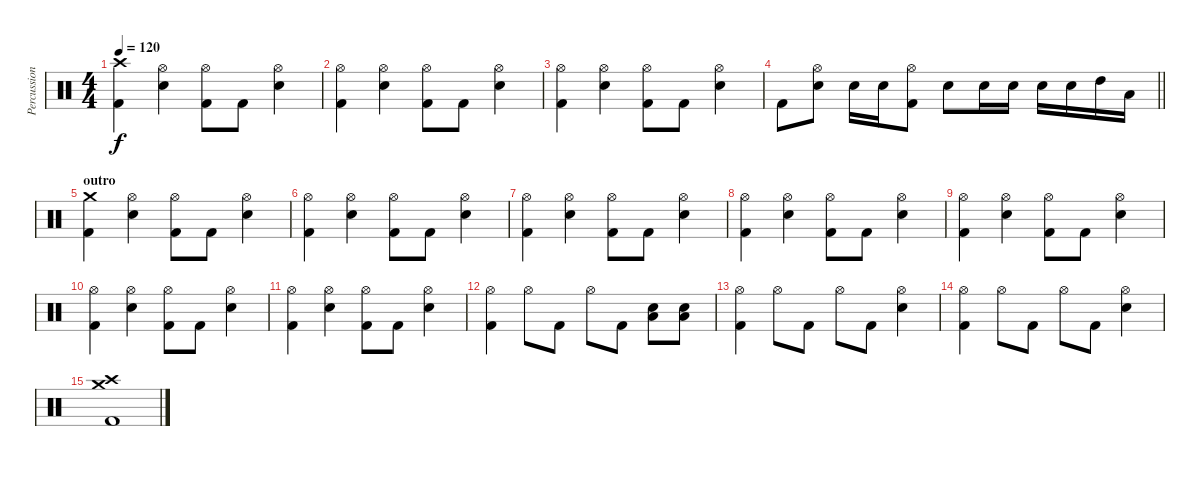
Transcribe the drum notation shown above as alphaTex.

\track ("Percussion" "Percussion") {instrument percussion}
\staff {score}
\articulation defaults
\ts (4 4)
\tempo 120
\clef neutral
\ks c
("Kick (hit) 2" "Crash high (hit)").4{dy f} ("Snare (hit) 2" "Hi-Hat (open)").4 ("Kick (hit) 2" "Hi-Hat (open)").8 "Kick (hit) 2".8 ("Snare (hit) 2" "Hi-Hat (open)").4 |
("Kick (hit) 2" "Hi-Hat (open)").4 ("Snare (hit) 2" "Hi-Hat (open)").4 ("Kick (hit) 2" "Hi-Hat (open)").8 "Kick (hit) 2".8 ("Snare (hit) 2" "Hi-Hat (open)").4 |
("Kick (hit) 2" "Hi-Hat (open)").4 ("Snare (hit) 2" "Hi-Hat (open)").4 ("Kick (hit) 2" "Hi-Hat (open)").8 "Kick (hit) 2".8 ("Snare (hit) 2" "Hi-Hat (open)").4 |
\barLineRight lightlight "Kick (hit) 2".8
("Snare (hit) 2" "Hi-Hat (open)").8 "Snare (hit) 2".16 "Snare (hit) 2".16 ("Kick (hit) 2" "Hi-Hat (open)").8 "Snare (hit) 2".8 "Snare (hit) 2".16 "Snare (hit) 2".16 "Snare (hit) 2".16 "Snare (hit) 2".16 "High Tom (hit)".16 "Low Tom (hit)".16 |
\section ("" "outro")
("Kick (hit) 2" "Crash medium (hit)").4 ("Snare (hit) 2" "Hi-Hat (open)").4 ("Kick (hit) 2" "Hi-Hat (open)").8 "Kick (hit) 2".8 ("Snare (hit) 2" "Hi-Hat (open)").4 |
("Kick (hit) 2" "Hi-Hat (open)").4 ("Snare (hit) 2" "Hi-Hat (open)").4 ("Kick (hit) 2" "Hi-Hat (open)").8 "Kick (hit) 2".8 ("Snare (hit) 2" "Hi-Hat (open)").4 |
("Kick (hit) 2" "Hi-Hat (open)").4 ("Snare (hit) 2" "Hi-Hat (open)").4 ("Kick (hit) 2" "Hi-Hat (open)").8 "Kick (hit) 2".8 ("Snare (hit) 2" "Hi-Hat (open)").4 |
("Kick (hit) 2" "Hi-Hat (open)").4 ("Snare (hit) 2" "Hi-Hat (open)").4 ("Kick (hit) 2" "Hi-Hat (open)").8 "Kick (hit) 2".8 ("Snare (hit) 2" "Hi-Hat (open)").4 |
("Kick (hit) 2" "Hi-Hat (open)").4 ("Snare (hit) 2" "Hi-Hat (open)").4 ("Kick (hit) 2" "Hi-Hat (open)").8 "Kick (hit) 2".8 ("Snare (hit) 2" "Hi-Hat (open)").4 |
("Kick (hit) 2" "Hi-Hat (open)").4 ("Snare (hit) 2" "Hi-Hat (open)").4 ("Kick (hit) 2" "Hi-Hat (open)").8 "Kick (hit) 2".8 ("Snare (hit) 2" "Hi-Hat (open)").4 |
("Kick (hit) 2" "Hi-Hat (open)").4 ("Snare (hit) 2" "Hi-Hat (open)").4 ("Kick (hit) 2" "Hi-Hat (open)").8 "Kick (hit) 2".8 ("Snare (hit) 2" "Hi-Hat (open)").4 |
("Kick (hit) 2" "Hi-Hat (open)").4 "Hi-Hat (open)".8 "Kick (hit) 2".8 "Hi-Hat (open)".8 "Kick (hit) 2".8 ("Snare (hit) 2" "Low Tom (hit)").8 ("Snare (hit) 2" "Low Tom (hit)").8 |
("Kick (hit) 2" "Hi-Hat (open)").4 "Hi-Hat (open)".8 "Kick (hit) 2".8 "Hi-Hat (open)".8 "Kick (hit) 2".8 ("Snare (hit) 2" "Hi-Hat (open)").4 |
("Kick (hit) 2" "Hi-Hat (open)").4 "Hi-Hat (open)".8 "Kick (hit) 2".8 "Hi-Hat (open)".8 "Kick (hit) 2".8 ("Snare (hit) 2" "Hi-Hat (open)").4 |
("Kick (hit) 2" "Crash high (hit)" "Crash medium (hit)").1
